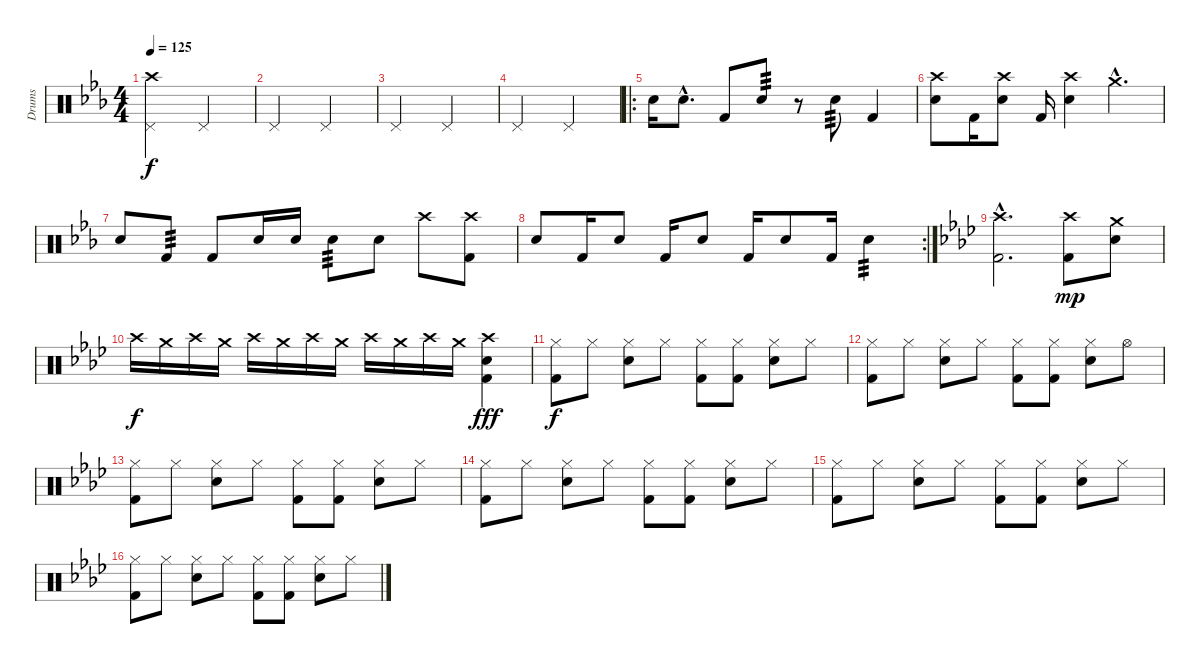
\track ("Drums" "Drums") {instrument percussion}
\staff {score}
\articulation defaults
\ts (4 4)
\tempo 125
\clef neutral
\ks eb
("Pedal Hi-Hat (hit)" "Crash high (hit)").2{dy f} "Pedal Hi-Hat (hit)".2 |
"Pedal Hi-Hat (hit)".2 "Pedal Hi-Hat (hit)".2 |
"Pedal Hi-Hat (hit)".2 "Pedal Hi-Hat (hit)".2 |
"Pedal Hi-Hat (hit)".2 "Pedal Hi-Hat (hit)".2 |
\ro "Electric Snare (hit)".16 "Electric Snare (hit)"{hac}.8{d} "Kick (hit) 2".8 "Electric Snare (hit)".8{tp 3}
r.8 "Electric Snare (hit)".8{tp 3} "Kick (hit) 2".4 |
("Crash high (hit)" "Electric Snare (hit)").8 "Kick (hit) 2".16 ("Crash high (hit)" "Electric Snare (hit)").8 "Kick (hit) 2".16 ("Crash high (hit)" "Electric Snare (hit)").4 "Crash medium (hit)"{hac}.4{d} |
"Electric Snare (hit)".8 "Kick (hit) 2".8{tp 3} "Kick (hit) 2".8 "Electric Snare (hit)".16 "Electric Snare (hit)".16 "Electric Snare (hit)".8{tp 3} "Electric Snare (hit)".8 "Crash high (hit)".8 ("Crash high (hit)" "Kick (hit) 2").8 |
\rc 2 "Electric Snare (hit)".8 "Kick (hit) 2".16 "Electric Snare (hit)".8 "Kick (hit) 2".16 "Electric Snare (hit)".8 "Kick (hit) 2".16 "Electric Snare (hit)".8 "Kick (hit) 2".16 "Electric Snare (hit)".4{tp 3}
|
\ks ab
("Crash high (hit)"{hac} "Kick (hit) 2"{hac}).2{d} ("Crash high (hit)" "Kick (hit) 2").8{dy mp} ("Crash medium (hit)" "Electric Snare (hit)").8 |
"Crash high (hit)".16{dy f} "Crash medium (hit)".16 "Crash high (hit)".16 "Crash medium (hit)".16 "Crash high (hit)".16 "Crash medium (hit)".16 "Crash high (hit)".16 "Crash medium (hit)".16 "Crash high (hit)".16 "Crash medium (hit)".16 "Crash high (hit)".16 "Crash medium (hit)".16 ("Crash high (hit)" "Electric Snare (hit)" "Kick (hit) 2").4{dy fff} |
("Hi-Hat (closed)" "Kick (hit) 2").8{dy f} "Hi-Hat (closed)".8 ("Hi-Hat (closed)" "Snare (hit) 2").8 "Hi-Hat (closed)".8 ("Hi-Hat (closed)" "Kick (hit) 2").8 ("Hi-Hat (closed)" "Kick (hit) 2").8 ("Hi-Hat (closed)" "Snare (hit) 2").8 "Hi-Hat (closed)".8 |
("Hi-Hat (closed)" "Kick (hit) 2").8 "Hi-Hat (closed)".8 ("Hi-Hat (closed)" "Snare (hit) 2").8 "Hi-Hat (closed)".8 ("Hi-Hat (closed)" "Kick (hit) 2").8 ("Hi-Hat (closed)" "Kick (hit) 2").8 ("Hi-Hat (closed)" "Snare (hit) 2").8 "Hi-Hat (open)".8 |
("Hi-Hat (closed)" "Kick (hit) 2").8 "Hi-Hat (closed)".8 ("Hi-Hat (closed)" "Snare (hit) 2").8 "Hi-Hat (closed)".8 ("Hi-Hat (closed)" "Kick (hit) 2").8 ("Hi-Hat (closed)" "Kick (hit) 2").8 ("Hi-Hat (closed)" "Snare (hit) 2").8 "Hi-Hat (closed)".8 |
("Hi-Hat (closed)" "Kick (hit) 2").8 "Hi-Hat (closed)".8 ("Hi-Hat (closed)" "Snare (hit) 2").8 "Hi-Hat (closed)".8 ("Hi-Hat (closed)" "Kick (hit) 2").8 ("Hi-Hat (closed)" "Kick (hit) 2").8 ("Hi-Hat (closed)" "Snare (hit) 2").8 "Hi-Hat (closed)".8 |
("Hi-Hat (closed)" "Kick (hit) 2").8 "Hi-Hat (closed)".8 ("Hi-Hat (closed)" "Snare (hit) 2").8 "Hi-Hat (closed)".8 ("Hi-Hat (closed)" "Kick (hit) 2").8 ("Hi-Hat (closed)" "Kick (hit) 2").8 ("Hi-Hat (closed)" "Snare (hit) 2").8 "Hi-Hat (closed)".8 |
("Hi-Hat (closed)" "Kick (hit) 2").8 "Hi-Hat (closed)".8 ("Hi-Hat (closed)" "Snare (hit) 2").8 "Hi-Hat (closed)".8 ("Hi-Hat (closed)" "Kick (hit) 2").8 ("Hi-Hat (closed)" "Kick (hit) 2").8 ("Hi-Hat (closed)" "Snare (hit) 2").8 "Hi-Hat (closed)".8
